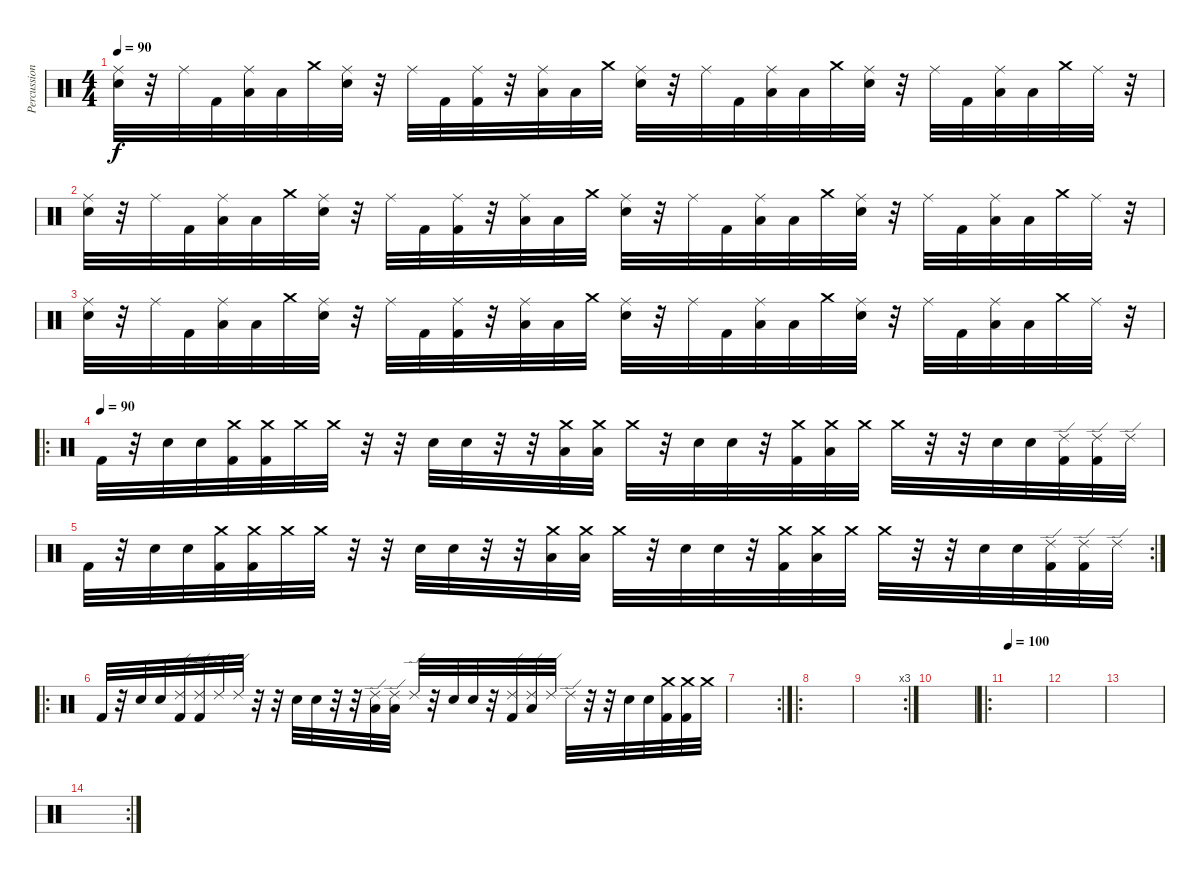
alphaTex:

\track ("Percussion" "Percussion") {instrument percussion}
\staff {score}
\articulation defaults
\ts (4 4)
\tempo 90
\clef neutral
\ks c
("Ride (middle)" "Electric Snare (hit)").32{dy f} r.32 "Ride (middle)".32 "Kick (hit) 2".32 ("Ride (middle)" "Low Tom (hit)").32 "Low Tom (hit)".32 "Crash medium (hit)".32 ("Ride (middle)" "Electric Snare (hit)").32 r.32 "Ride (middle)".32 "Kick (hit) 2".32 ("Ride (middle)" "Kick (hit) 2").32 r.32 ("Ride (middle)" "Low Tom (hit)").32 "Low Tom (hit)".32 "Crash medium (hit)".32 ("Ride (middle)" "Electric Snare (hit)").32 r.32 "Ride (middle)".32 "Kick (hit) 2".32 ("Ride (middle)" "Low Tom (hit)").32 "Low Tom (hit)".32 "Crash medium (hit)".32 ("Ride (middle)" "Electric Snare (hit)").32 r.32 "Ride (middle)".32 "Kick (hit) 2".32 ("Ride (middle)" "Low Tom (hit)").32 "Low Tom (hit)".32 "Crash medium (hit)".32 "Ride (middle)".32 r.32 |
("Ride (middle)" "Electric Snare (hit)").32 r.32 "Ride (middle)".32 "Kick (hit) 2".32 ("Ride (middle)" "Low Tom (hit)").32 "Low Tom (hit)".32 "Crash medium (hit)".32 ("Ride (middle)" "Electric Snare (hit)").32 r.32 "Ride (middle)".32 "Kick (hit) 2".32 ("Ride (middle)" "Kick (hit) 2").32 r.32 ("Ride (middle)" "Low Tom (hit)").32 "Low Tom (hit)".32 "Crash medium (hit)".32 ("Ride (middle)" "Electric Snare (hit)").32 r.32 "Ride (middle)".32 "Kick (hit) 2".32 ("Ride (middle)" "Low Tom (hit)").32 "Low Tom (hit)".32 "Crash medium (hit)".32 ("Ride (middle)" "Electric Snare (hit)").32 r.32 "Ride (middle)".32 "Kick (hit) 2".32 ("Ride (middle)" "Low Tom (hit)").32 "Low Tom (hit)".32 "Crash medium (hit)".32 "Ride (middle)".32 r.32 |
("Ride (middle)" "Electric Snare (hit)").32 r.32 "Ride (middle)".32 "Kick (hit) 2".32 ("Ride (middle)" "Low Tom (hit)").32 "Low Tom (hit)".32 "Crash medium (hit)".32 ("Ride (middle)" "Electric Snare (hit)").32 r.32 "Ride (middle)".32 "Kick (hit) 2".32 ("Ride (middle)" "Kick (hit) 2").32 r.32 ("Ride (middle)" "Low Tom (hit)").32 "Low Tom (hit)".32 "Crash medium (hit)".32 ("Ride (middle)" "Electric Snare (hit)").32 r.32 "Ride (middle)".32 "Kick (hit) 2".32 ("Ride (middle)" "Low Tom (hit)").32 "Low Tom (hit)".32 "Crash medium (hit)".32 ("Ride (middle)" "Electric Snare (hit)").32 r.32 "Ride (middle)".32 "Kick (hit) 2".32 ("Ride (middle)" "Low Tom (hit)").32 "Low Tom (hit)".32 "Crash medium (hit)".32 "Ride (middle)".32 r.32 |
\ro
\tempo (90)
"Kick (hit) 2".32 r.32 "Electric Snare (hit)".32 "Electric Snare (hit)".32 ("Crash medium (hit)" "Kick (hit) 2").32 ("Crash medium (hit)" "Kick (hit) 2").32 "Crash medium (hit)".32 "Crash medium (hit)".32 r.32 r.32 "Electric Snare (hit)".32 "Electric Snare (hit)".32 r.32 r.32 ("Crash medium (hit)" "Low Tom (hit)").32 ("Crash medium (hit)" "Low Tom (hit)").32 "Crash medium (hit)".32 r.32 "Electric Snare (hit)".32 "Electric Snare (hit)".32 r.32 ("Crash medium (hit)" "Kick (hit) 2").32 ("Crash medium (hit)" "Low Tom (hit)").32 "Crash medium (hit)".32 "Crash medium (hit)".32 r.32 r.32 "Electric Snare (hit)".32 "Electric Snare (hit)".32 ("Ride (edge) 2" "Kick (hit) 2").32 ("Ride (edge) 2" "Kick (hit) 2").32 "Ride (edge) 2".32 |
\rc 2 "Kick (hit) 2".32
r.32 "Electric Snare (hit)".32 "Electric Snare (hit)".32 ("Crash medium (hit)" "Kick (hit) 2").32 ("Crash medium (hit)" "Kick (hit) 2").32 "Crash medium (hit)".32 "Crash medium (hit)".32 r.32 r.32 "Electric Snare (hit)".32 "Electric Snare (hit)".32 r.32 r.32 ("Crash medium (hit)" "Low Tom (hit)").32 ("Crash medium (hit)" "Low Tom (hit)").32 "Crash medium (hit)".32 r.32 "Electric Snare (hit)".32 "Electric Snare (hit)".32 r.32 ("Crash medium (hit)" "Kick (hit) 2").32 ("Crash medium (hit)" "Low Tom (hit)").32 "Crash medium (hit)".32 "Crash medium (hit)".32 r.32 r.32 "Electric Snare (hit)".32 "Electric Snare (hit)".32 ("Ride (edge) 2" "Kick (hit) 2").32 ("Ride (edge) 2" "Kick (hit) 2").32 "Ride (edge) 2".32 |
\ro "Kick (hit) 2".32
r.32 "Electric Snare (hit)".32 "Electric Snare (hit)".32 ("Ride (edge) 2" "Kick (hit) 2").32 ("Ride (edge) 2" "Kick (hit) 2").32 "Ride (edge) 2".32 "Ride (edge) 2".32 r.32 r.32 "Electric Snare (hit)".32 "Electric Snare (hit)".32 r.32 r.32 ("Ride (edge) 2" "Low Tom (hit)").32 ("Ride (edge) 2" "Low Tom (hit)").32 "Ride (edge) 2".32 r.32 "Electric Snare (hit)".32 "Electric Snare (hit)".32 r.32 ("Ride (edge) 2" "Kick (hit) 2").32 ("Ride (edge) 2" "Low Tom (hit)").32 "Ride (edge) 2".32 "Ride (edge) 2".32 r.32 r.32 "Electric Snare (hit)".32 "Electric Snare (hit)".32 ("Crash medium (hit)" "Kick (hit) 2").32 ("Crash medium (hit)" "Kick (hit) 2").32 "Crash medium (hit)".32 |
\rc 2
|
\ro
|
\rc 3
|
|
\ro
\tempo 100
|
|
|
\rc 2
